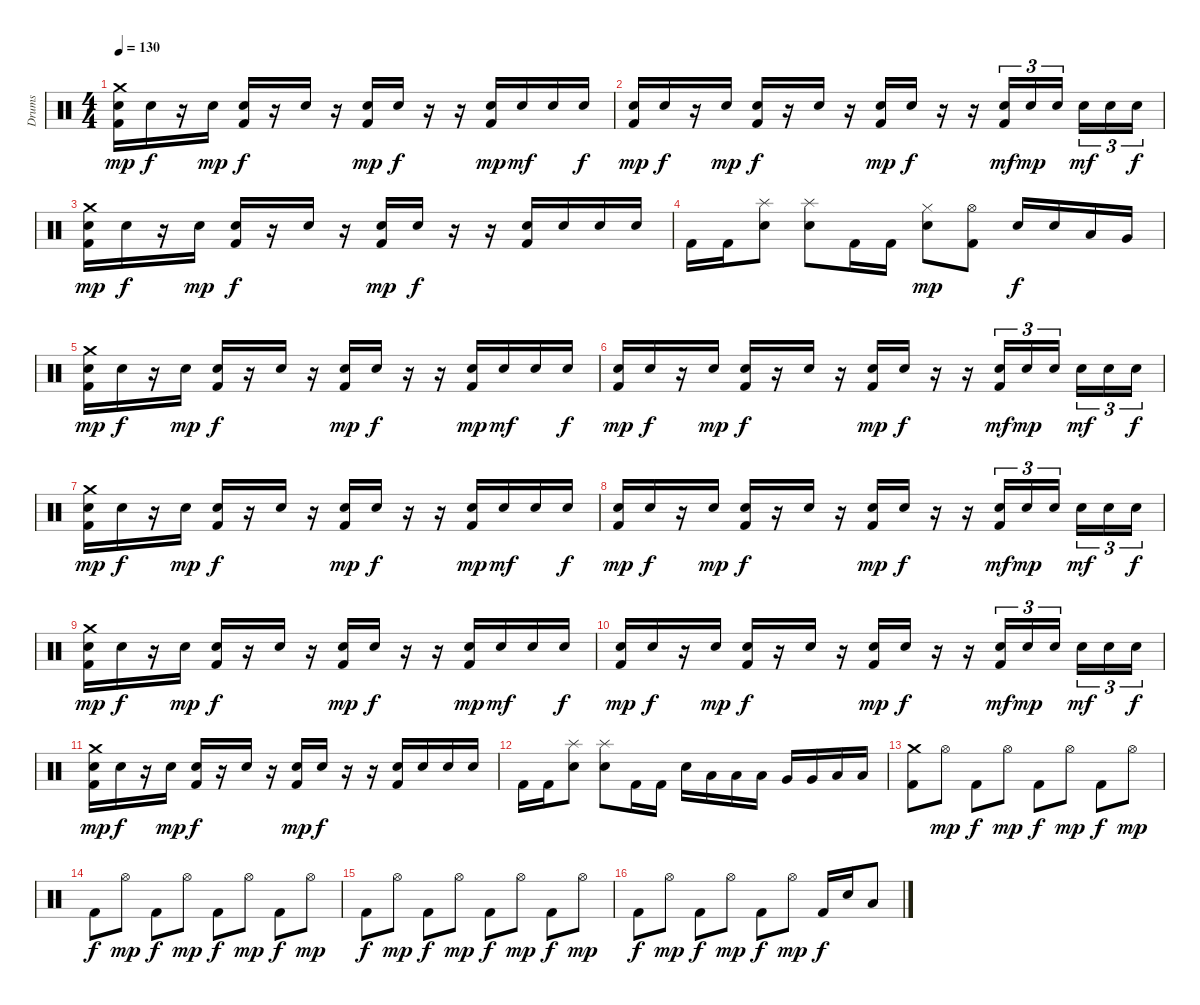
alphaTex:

\track ("Drums" "Drums") {instrument percussion}
\staff {score}
\articulation defaults
\ts (4 4)
\tempo 130
\clef neutral
\ks c
("Crash medium (hit)" "Snare (hit) 2" "Kick (hit) 2").16{dy mp} "Snare (hit) 2".16{dy f} r.16 "Snare (hit) 2".16{dy mp} ("Snare (hit) 2" "Kick (hit) 2").16{dy f} r.16 "Snare (hit) 2".16 r.16 ("Snare (hit) 2" "Kick (hit) 2").16{dy mp} "Snare (hit) 2".16{dy f} r.16 r.16 ("Snare (hit) 2" "Kick (hit) 2").16{dy mp} "Snare (hit) 2".16{dy mf} "Snare (hit) 2".16 "Snare (hit) 2".16{dy f} |
("Snare (hit) 2" "Kick (hit) 2").16{dy mp} "Snare (hit) 2".16{dy f} r.16 "Snare (hit) 2".16{dy mp} ("Snare (hit) 2" "Kick (hit) 2").16{dy f} r.16 "Snare (hit) 2".16 r.16 ("Snare (hit) 2" "Kick (hit) 2").16{dy mp} "Snare (hit) 2".16{dy f} r.16 r.16 ("Snare (hit) 2" "Kick (hit) 2").16{tu (3 2) dy mf} "Snare (hit) 2".16{tu (3 2) dy mp} "Snare (hit) 2".16{tu (3 2) beam splitsecondary} "Snare (hit) 2".16{tu (3 2) dy mf} "Snare (hit) 2".16{tu (3 2)} "Snare (hit) 2".16{tu (3 2) dy f} |
("Crash medium (hit)" "Snare (hit) 2" "Kick (hit) 2").16{dy mp} "Snare (hit) 2".16{dy f} r.16 "Snare (hit) 2".16{dy mp} ("Snare (hit) 2" "Kick (hit) 2").16{dy f} r.16 "Snare (hit) 2".16 r.16 ("Snare (hit) 2" "Kick (hit) 2").16{dy mp} "Snare (hit) 2".16{dy f} r.16 r.16 ("Snare (hit) 2" "Kick (hit) 2").16 "Snare (hit) 2".16 "Snare (hit) 2".16 "Snare (hit) 2".16 |
"Kick (hit) 2".16 "Kick (hit) 2".16 ("Splash (hit)" "Snare (hit) 2").8 ("Splash (hit)" "Snare (hit) 2").8 "Kick (hit) 2".16 "Kick (hit) 2".16 ("Hi-Hat (closed)" "Snare (hit) 2").8{dy mp} ("Hi-Hat (open)" "Kick (hit) 2").8 "Snare (hit) 2".16{dy f} "Snare (hit) 2".16 "Low Tom (hit)".16 "Very Low Tom (hit)".16 |
("Crash medium (hit)" "Snare (hit) 2" "Kick (hit) 2").16{dy mp} "Snare (hit) 2".16{dy f} r.16 "Snare (hit) 2".16{dy mp} ("Snare (hit) 2" "Kick (hit) 2").16{dy f} r.16 "Snare (hit) 2".16 r.16 ("Snare (hit) 2" "Kick (hit) 2").16{dy mp} "Snare (hit) 2".16{dy f} r.16 r.16 ("Snare (hit) 2" "Kick (hit) 2").16{dy mp} "Snare (hit) 2".16{dy mf} "Snare (hit) 2".16 "Snare (hit) 2".16{dy f} |
("Snare (hit) 2" "Kick (hit) 2").16{dy mp} "Snare (hit) 2".16{dy f} r.16 "Snare (hit) 2".16{dy mp} ("Snare (hit) 2" "Kick (hit) 2").16{dy f} r.16 "Snare (hit) 2".16 r.16 ("Snare (hit) 2" "Kick (hit) 2").16{dy mp} "Snare (hit) 2".16{dy f} r.16 r.16 ("Snare (hit) 2" "Kick (hit) 2").16{tu (3 2) dy mf} "Snare (hit) 2".16{tu (3 2) dy mp} "Snare (hit) 2".16{tu (3 2) beam splitsecondary} "Snare (hit) 2".16{tu (3 2) dy mf} "Snare (hit) 2".16{tu (3 2)} "Snare (hit) 2".16{tu (3 2) dy f} |
("Crash medium (hit)" "Snare (hit) 2" "Kick (hit) 2").16{dy mp} "Snare (hit) 2".16{dy f} r.16 "Snare (hit) 2".16{dy mp} ("Snare (hit) 2" "Kick (hit) 2").16{dy f} r.16 "Snare (hit) 2".16 r.16 ("Snare (hit) 2" "Kick (hit) 2").16{dy mp} "Snare (hit) 2".16{dy f} r.16 r.16 ("Snare (hit) 2" "Kick (hit) 2").16{dy mp} "Snare (hit) 2".16{dy mf} "Snare (hit) 2".16 "Snare (hit) 2".16{dy f} |
("Snare (hit) 2" "Kick (hit) 2").16{dy mp} "Snare (hit) 2".16{dy f} r.16 "Snare (hit) 2".16{dy mp} ("Snare (hit) 2" "Kick (hit) 2").16{dy f} r.16 "Snare (hit) 2".16 r.16 ("Snare (hit) 2" "Kick (hit) 2").16{dy mp} "Snare (hit) 2".16{dy f} r.16 r.16 ("Snare (hit) 2" "Kick (hit) 2").16{tu (3 2) dy mf} "Snare (hit) 2".16{tu (3 2) dy mp} "Snare (hit) 2".16{tu (3 2) beam splitsecondary} "Snare (hit) 2".16{tu (3 2) dy mf} "Snare (hit) 2".16{tu (3 2)} "Snare (hit) 2".16{tu (3 2) dy f} |
("Crash medium (hit)" "Snare (hit) 2" "Kick (hit) 2").16{dy mp} "Snare (hit) 2".16{dy f} r.16 "Snare (hit) 2".16{dy mp} ("Snare (hit) 2" "Kick (hit) 2").16{dy f} r.16 "Snare (hit) 2".16 r.16 ("Snare (hit) 2" "Kick (hit) 2").16{dy mp} "Snare (hit) 2".16{dy f} r.16 r.16 ("Snare (hit) 2" "Kick (hit) 2").16{dy mp} "Snare (hit) 2".16{dy mf} "Snare (hit) 2".16 "Snare (hit) 2".16{dy f} |
("Snare (hit) 2" "Kick (hit) 2").16{dy mp} "Snare (hit) 2".16{dy f} r.16 "Snare (hit) 2".16{dy mp} ("Snare (hit) 2" "Kick (hit) 2").16{dy f} r.16 "Snare (hit) 2".16 r.16 ("Snare (hit) 2" "Kick (hit) 2").16{dy mp} "Snare (hit) 2".16{dy f} r.16 r.16 ("Snare (hit) 2" "Kick (hit) 2").16{tu (3 2) dy mf} "Snare (hit) 2".16{tu (3 2) dy mp} "Snare (hit) 2".16{tu (3 2) beam splitsecondary} "Snare (hit) 2".16{tu (3 2) dy mf} "Snare (hit) 2".16{tu (3 2)} "Snare (hit) 2".16{tu (3 2) dy f} |
("Crash medium (hit)" "Snare (hit) 2" "Kick (hit) 2").16{dy mp} "Snare (hit) 2".16{dy f} r.16 "Snare (hit) 2".16{dy mp} ("Snare (hit) 2" "Kick (hit) 2").16{dy f} r.16 "Snare (hit) 2".16 r.16 ("Snare (hit) 2" "Kick (hit) 2").16{dy mp} "Snare (hit) 2".16{dy f} r.16 r.16 ("Snare (hit) 2" "Kick (hit) 2").16 "Snare (hit) 2".16 "Snare (hit) 2".16 "Snare (hit) 2".16 |
"Kick (hit) 2".16 "Kick (hit) 2".16 ("Splash (hit)" "Snare (hit) 2").8 ("Splash (hit)" "Snare (hit) 2").8 "Kick (hit) 2".16 "Kick (hit) 2".16 "Snare (hit) 2".16 "Low Tom (hit)".16 "Low Tom (hit)".16 "Low Tom (hit)".16 "Very Low Tom (hit)".16 "Very Low Tom (hit)".16 "Low Floor Tom (hit)".16 "Low Floor Tom (hit)".16 |
("Crash medium (hit)" "Kick (hit) 2").8 "Hi-Hat (open)".8{dy mp} "Kick (hit) 2".8{dy f} "Hi-Hat (open)".8{dy mp} "Kick (hit) 2".8{dy f} "Hi-Hat (open)".8{dy mp} "Kick (hit) 2".8{dy f} "Hi-Hat (open)".8{dy mp} |
"Kick (hit) 2".8{dy f} "Hi-Hat (open)".8{dy mp} "Kick (hit) 2".8{dy f} "Hi-Hat (open)".8{dy mp} "Kick (hit) 2".8{dy f} "Hi-Hat (open)".8{dy mp} "Kick (hit) 2".8{dy f} "Hi-Hat (open)".8{dy mp} |
"Kick (hit) 2".8{dy f} "Hi-Hat (open)".8{dy mp} "Kick (hit) 2".8{dy f} "Hi-Hat (open)".8{dy mp} "Kick (hit) 2".8{dy f} "Hi-Hat (open)".8{dy mp} "Kick (hit) 2".8{dy f} "Hi-Hat (open)".8{dy mp} |
"Kick (hit) 2".8{dy f} "Hi-Hat (open)".8{dy mp} "Kick (hit) 2".8{dy f} "Hi-Hat (open)".8{dy mp} "Kick (hit) 2".8{dy f} "Hi-Hat (open)".8{dy mp} "Kick (hit) 2".16{dy f} "Snare (hit) 2".16 "Low Tom (hit)".8
